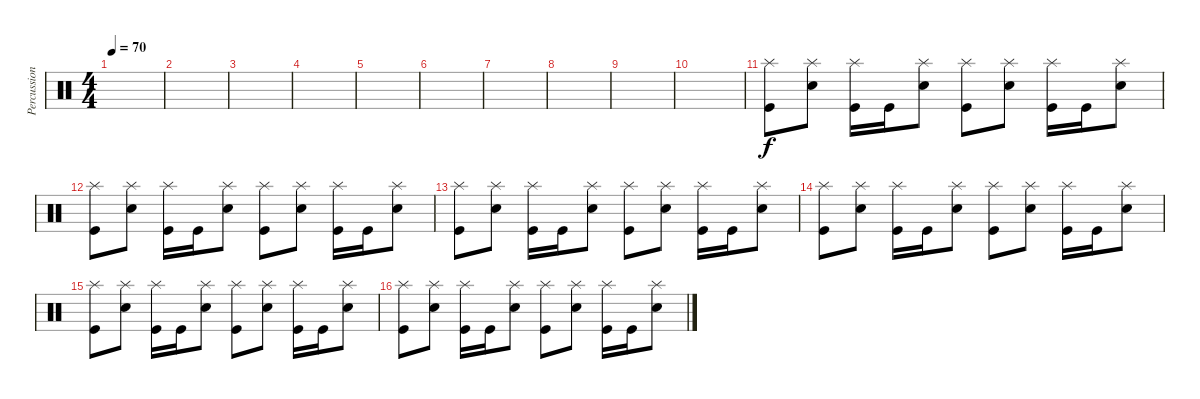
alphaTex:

\track ("Percussions" "Percussion") {instrument percussion}
\staff {score}
\articulation defaults
\ts (4 4)
\tempo 70
\clef neutral
\ks c
|
|
|
|
|
|
|
|
|
|
("Splash (hit)" "Kick (hit)").8 ("Splash (hit)" "Electric Snare (hit)").8 ("Splash (hit)" "Kick (hit)").16 "Kick (hit)".16 ("Splash (hit)" "Electric Snare (hit)").8 ("Splash (hit)" "Kick (hit)").8 ("Splash (hit)" "Electric Snare (hit)").8 ("Splash (hit)" "Kick (hit)").16 "Kick (hit)".16 ("Splash (hit)" "Electric Snare (hit)").8 |
("Splash (hit)" "Kick (hit)").8 ("Splash (hit)" "Electric Snare (hit)").8 ("Splash (hit)" "Kick (hit)").16 "Kick (hit)".16 ("Splash (hit)" "Electric Snare (hit)").8 ("Splash (hit)" "Kick (hit)").8 ("Splash (hit)" "Electric Snare (hit)").8 ("Splash (hit)" "Kick (hit)").16 "Kick (hit)".16 ("Splash (hit)" "Electric Snare (hit)").8 |
("Splash (hit)" "Kick (hit)").8 ("Splash (hit)" "Electric Snare (hit)").8 ("Splash (hit)" "Kick (hit)").16 "Kick (hit)".16 ("Splash (hit)" "Electric Snare (hit)").8 ("Splash (hit)" "Kick (hit)").8 ("Splash (hit)" "Electric Snare (hit)").8 ("Splash (hit)" "Kick (hit)").16 "Kick (hit)".16 ("Splash (hit)" "Electric Snare (hit)").8 |
("Splash (hit)" "Kick (hit)").8 ("Splash (hit)" "Electric Snare (hit)").8 ("Splash (hit)" "Kick (hit)").16 "Kick (hit)".16 ("Splash (hit)" "Electric Snare (hit)").8 ("Splash (hit)" "Kick (hit)").8 ("Splash (hit)" "Electric Snare (hit)").8 ("Splash (hit)" "Kick (hit)").16 "Kick (hit)".16 ("Splash (hit)" "Electric Snare (hit)").8 |
("Splash (hit)" "Kick (hit)").8 ("Splash (hit)" "Electric Snare (hit)").8 ("Splash (hit)" "Kick (hit)").16 "Kick (hit)".16 ("Splash (hit)" "Electric Snare (hit)").8 ("Splash (hit)" "Kick (hit)").8 ("Splash (hit)" "Electric Snare (hit)").8 ("Splash (hit)" "Kick (hit)").16 "Kick (hit)".16 ("Splash (hit)" "Electric Snare (hit)").8 |
("Splash (hit)" "Kick (hit)").8 ("Splash (hit)" "Electric Snare (hit)").8 ("Splash (hit)" "Kick (hit)").16 "Kick (hit)".16 ("Splash (hit)" "Electric Snare (hit)").8 ("Splash (hit)" "Kick (hit)").8 ("Splash (hit)" "Electric Snare (hit)").8 ("Splash (hit)" "Kick (hit)").16 "Kick (hit)".16 ("Splash (hit)" "Electric Snare (hit)").8
